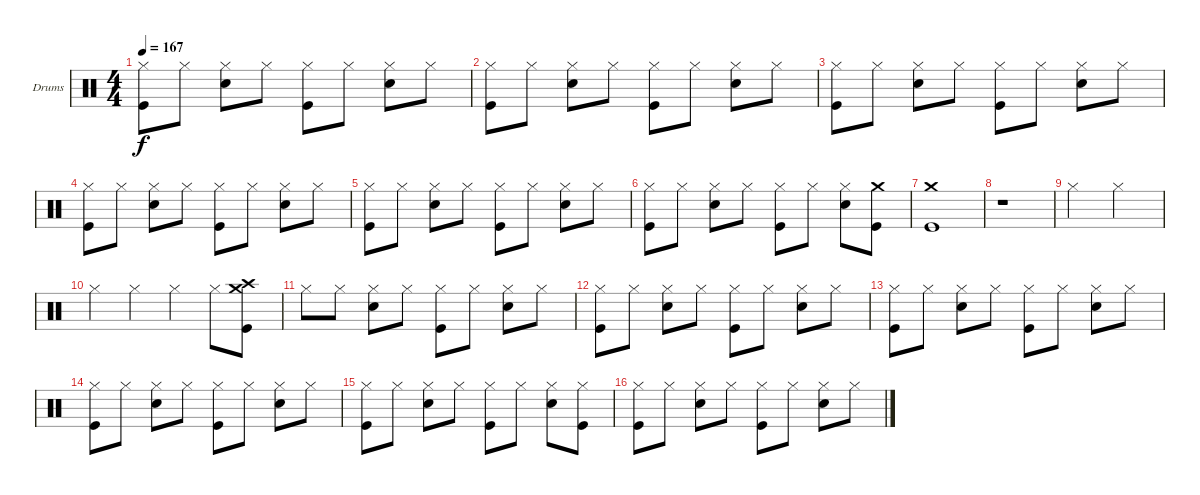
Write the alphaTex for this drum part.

\bracketExtendMode groupsimilarinstruments
\firstSystemTrackNameOrientation horizontal
\otherSystemsTrackNameOrientation horizontal
\track ("Drumkit" "Drums") {instrument percussion}
\staff {score}
\articulation defaults
\ts (4 4)
\tempo 167
\clef neutral
\ks c
("Hi-Hat (closed)" "Kick (hit)").8{dy f} "Hi-Hat (closed)".8 ("Hi-Hat (closed)" "Snare (hit) 2").8 "Hi-Hat (closed)".8 ("Hi-Hat (closed)" "Kick (hit)").8 "Hi-Hat (closed)".8 ("Hi-Hat (closed)" "Snare (hit) 2").8 "Hi-Hat (closed)".8 |
("Hi-Hat (closed)" "Kick (hit)").8 "Hi-Hat (closed)".8 ("Hi-Hat (closed)" "Snare (hit) 2").8 "Hi-Hat (closed)".8 ("Hi-Hat (closed)" "Kick (hit)").8 "Hi-Hat (closed)".8 ("Hi-Hat (closed)" "Snare (hit) 2").8 "Hi-Hat (closed)".8 |
("Hi-Hat (closed)" "Kick (hit)").8 "Hi-Hat (closed)".8 ("Hi-Hat (closed)" "Snare (hit) 2").8 "Hi-Hat (closed)".8 ("Hi-Hat (closed)" "Kick (hit)").8 "Hi-Hat (closed)".8 ("Hi-Hat (closed)" "Snare (hit) 2").8 "Hi-Hat (closed)".8 |
("Hi-Hat (closed)" "Kick (hit)").8 "Hi-Hat (closed)".8 ("Hi-Hat (closed)" "Snare (hit) 2").8 "Hi-Hat (closed)".8 ("Hi-Hat (closed)" "Kick (hit)").8 "Hi-Hat (closed)".8 ("Hi-Hat (closed)" "Snare (hit) 2").8 "Hi-Hat (closed)".8 |
("Hi-Hat (closed)" "Kick (hit)").8 "Hi-Hat (closed)".8 ("Hi-Hat (closed)" "Snare (hit) 2").8 "Hi-Hat (closed)".8 ("Hi-Hat (closed)" "Kick (hit)").8 "Hi-Hat (closed)".8 ("Hi-Hat (closed)" "Snare (hit) 2").8 "Hi-Hat (closed)".8 |
("Hi-Hat (closed)" "Kick (hit)").8 "Hi-Hat (closed)".8 ("Hi-Hat (closed)" "Snare (hit) 2").8 "Hi-Hat (closed)".8 ("Hi-Hat (closed)" "Kick (hit)").8 "Hi-Hat (closed)".8 ("Hi-Hat (closed)" "Snare (hit) 2").8 ("Crash medium (hit)" "Kick (hit)").8 |
("Crash medium (hit)" "Kick (hit)").1 |
r.1 |
"Hi-Hat (closed)".2 "Hi-Hat (closed)".2 |
"Hi-Hat (closed)".4 "Hi-Hat (closed)".4 "Hi-Hat (closed)".4 "Hi-Hat (closed)".8 ("Crash medium (hit)" "Crash high (hit)" "Kick (hit)").8 |
"Hi-Hat (closed)".8 "Hi-Hat (closed)".8 ("Hi-Hat (closed)" "Snare (hit) 2").8 "Hi-Hat (closed)".8 ("Hi-Hat (closed)" "Kick (hit)").8 "Hi-Hat (closed)".8 ("Hi-Hat (closed)" "Snare (hit) 2").8 "Hi-Hat (closed)".8 |
("Hi-Hat (closed)" "Kick (hit)").8 "Hi-Hat (closed)".8 ("Hi-Hat (closed)" "Snare (hit) 2").8 "Hi-Hat (closed)".8 ("Hi-Hat (closed)" "Kick (hit)").8 "Hi-Hat (closed)".8 ("Hi-Hat (closed)" "Snare (hit) 2").8 "Hi-Hat (closed)".8 |
("Hi-Hat (closed)" "Kick (hit)").8 "Hi-Hat (closed)".8 ("Hi-Hat (closed)" "Snare (hit) 2").8 "Hi-Hat (closed)".8 ("Hi-Hat (closed)" "Kick (hit)").8 "Hi-Hat (closed)".8 ("Hi-Hat (closed)" "Snare (hit) 2").8 "Hi-Hat (closed)".8 |
("Hi-Hat (closed)" "Kick (hit)").8 "Hi-Hat (closed)".8 ("Hi-Hat (closed)" "Snare (hit) 2").8 "Hi-Hat (closed)".8 ("Hi-Hat (closed)" "Kick (hit)").8 "Hi-Hat (closed)".8 ("Hi-Hat (closed)" "Snare (hit) 2").8 "Hi-Hat (closed)".8 |
("Hi-Hat (closed)" "Kick (hit)").8 "Hi-Hat (closed)".8 ("Hi-Hat (closed)" "Snare (hit) 2").8 "Hi-Hat (closed)".8 ("Hi-Hat (closed)" "Kick (hit)").8 "Hi-Hat (closed)".8 ("Hi-Hat (closed)" "Snare (hit) 2").8 ("Hi-Hat (closed)" "Kick (hit)").8 |
("Hi-Hat (closed)" "Kick (hit)").8 "Hi-Hat (closed)".8 ("Hi-Hat (closed)" "Snare (hit) 2").8 "Hi-Hat (closed)".8 ("Hi-Hat (closed)" "Kick (hit)").8 "Hi-Hat (closed)".8 ("Hi-Hat (closed)" "Snare (hit) 2").8 "Hi-Hat (closed)".8
